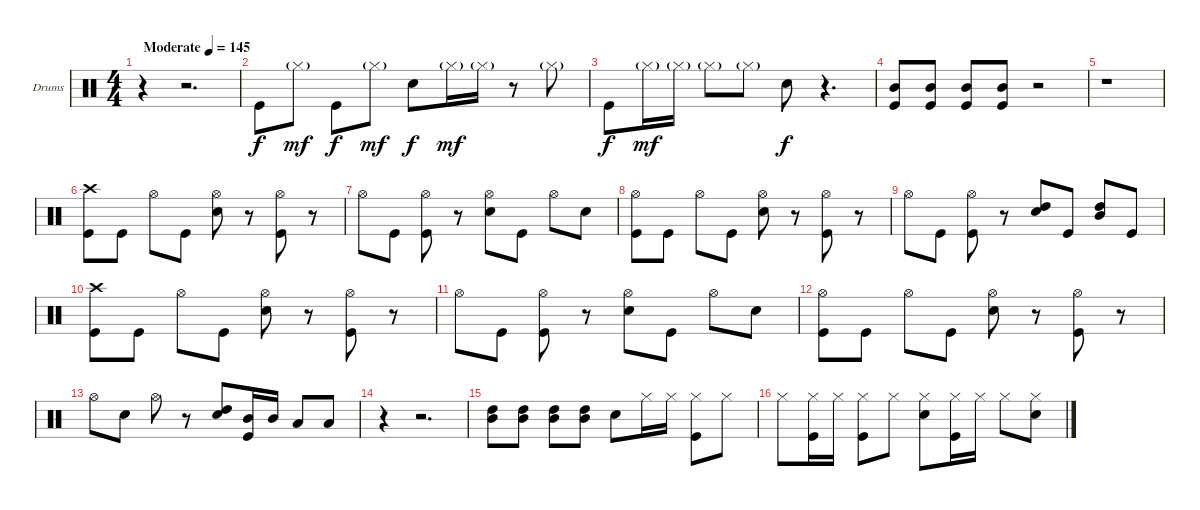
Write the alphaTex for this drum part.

\bracketExtendMode groupsimilarinstruments
\firstSystemTrackNameOrientation horizontal
\otherSystemsTrackNameOrientation horizontal
\track ("Drumkit" "Drums") {instrument percussion}
\staff {score}
\articulation defaults
\ts (4 4)
\beaming (8 2 2 2 2)
\tempo (145 "Moderate")
\clef neutral
\ks c
r.4{dy f} r.2{d} |
"Kick (hit)".8 "Hi-Hat (closed)"{g}.8{dy mf} "Kick (hit)".8{dy f} "Hi-Hat (closed)"{g}.8{dy mf} "Snare (hit) 2".8{dy f} "Hi-Hat (closed)"{g}.16{dy mf} "Hi-Hat (closed)"{g}.16 r.8 "Hi-Hat (closed)"{g}.8 |
"Kick (hit)".8{dy f} "Hi-Hat (closed)"{g}.16{dy mf} "Hi-Hat (closed)"{g}.16 "Hi-Hat (closed)"{g}.8 "Hi-Hat (closed)"{g}.8 "Snare (hit) 2".8{dy f} r.4{d} |
("Mid Tom (hit)" "Kick (hit)").8 ("Mid Tom (hit)" "Kick (hit)").8 ("Mid Tom (hit)" "Kick (hit)").8 ("Mid Tom (hit)" "Kick (hit)").8 r.2 |
r.1 |
("Crash high (hit)" "Kick (hit)").8 "Kick (hit)".8 "Hi-Hat (open)".8 "Kick (hit)".8 ("Hi-Hat (open)" "Snare (hit) 2").8 r.8 ("Hi-Hat (open)" "Kick (hit)").8 r.8 |
"Hi-Hat (open)".8 "Kick (hit)".8 ("Hi-Hat (open)" "Kick (hit)").8 r.8 ("Hi-Hat (open)" "Snare (hit) 2").8 "Kick (hit)".8 "Hi-Hat (open)".8 "Snare (hit) 2".8 |
("Hi-Hat (open)" "Kick (hit)").8 "Kick (hit)".8 "Hi-Hat (open)".8 "Kick (hit)".8 ("Hi-Hat (open)" "Snare (hit) 2").8 r.8 ("Hi-Hat (open)" "Kick (hit)").8 r.8 |
"Hi-Hat (open)".8 "Kick (hit)".8 ("Hi-Hat (open)" "Kick (hit)").8 r.8 ("Snare (hit) 2" "High Tom (hit)").8 "Kick (hit)".8 ("High Tom (hit)" "Mid Tom (hit)").8 "Kick (hit)".8 |
("Crash high (hit)" "Kick (hit)").8 "Kick (hit)".8 "Hi-Hat (open)".8 "Kick (hit)".8 ("Hi-Hat (open)" "Snare (hit) 2").8 r.8 ("Hi-Hat (open)" "Kick (hit)").8 r.8 |
"Hi-Hat (open)".8 "Kick (hit)".8 ("Hi-Hat (open)" "Kick (hit)").8 r.8 ("Hi-Hat (open)" "Snare (hit) 2").8 "Kick (hit)".8 "Hi-Hat (open)".8 "Snare (hit) 2".8 |
("Hi-Hat (open)" "Kick (hit)").8 "Kick (hit)".8 "Hi-Hat (open)".8 "Kick (hit)".8 ("Hi-Hat (open)" "Snare (hit) 2").8 r.8 ("Hi-Hat (open)" "Kick (hit)").8 r.8 |
"Hi-Hat (open)".8 "Snare (hit) 2".8 "Hi-Hat (open)".8 r.8 ("Snare (hit) 2" "High Tom (hit)").8 ("Mid Tom (hit)" "Kick (hit)").16 "Mid Tom (hit)".16 "Low Tom (hit)".8 "Low Tom (hit)".8 |
r.4 r.2{d} |
("High Tom (hit)" "Mid Tom (hit)").8 ("High Tom (hit)" "Mid Tom (hit)").8 ("High Tom (hit)" "Mid Tom (hit)").8 ("High Tom (hit)" "Mid Tom (hit)").8 "Snare (hit) 2".8 "Hi-Hat (closed)".16 "Hi-Hat (closed)".16 ("Hi-Hat (closed)" "Kick (hit)").8 "Hi-Hat (closed)".8 |
"Hi-Hat (closed)".8 ("Hi-Hat (closed)" "Kick (hit)").16 "Hi-Hat (closed)".16 ("Hi-Hat (closed)" "Kick (hit)").8 "Hi-Hat (closed)".8 ("Hi-Hat (closed)" "Snare (hit) 2").8 ("Kick (hit)" "Hi-Hat (closed)").16 "Hi-Hat (closed)".16 "Hi-Hat (closed)".8 ("Hi-Hat (closed)" "Snare (hit) 2").8
